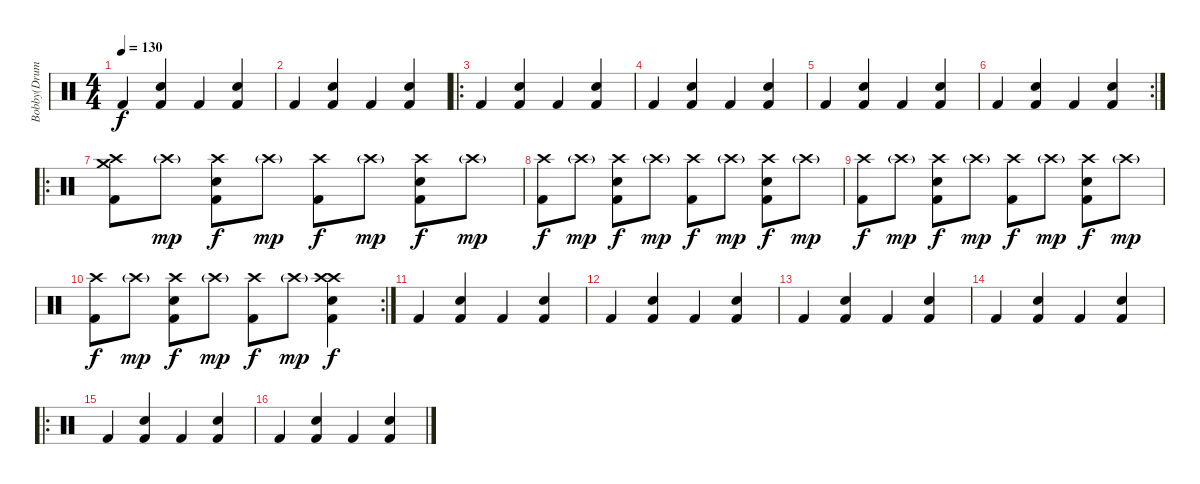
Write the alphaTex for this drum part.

\track ("Bobby(DrumSynth)" "Bobby(Drum") {instrument percussion}
\staff {score}
\articulation defaults
\ts (4 4)
\tempo 130
\clef neutral
\ks c "Kick (hit) 2".4{dy f}
("Kick (hit) 2" "Electric Snare (hit)").4 "Kick (hit) 2".4 ("Kick (hit) 2" "Electric Snare (hit)").4 |
"Kick (hit) 2".4 ("Kick (hit) 2" "Electric Snare (hit)").4 "Kick (hit) 2".4 ("Kick (hit) 2" "Electric Snare (hit)").4 |
\ro "Kick (hit) 2".4
("Kick (hit) 2" "Electric Snare (hit)").4 "Kick (hit) 2".4 ("Kick (hit) 2" "Electric Snare (hit)").4 |
"Kick (hit) 2".4 ("Kick (hit) 2" "Electric Snare (hit)").4 "Kick (hit) 2".4 ("Kick (hit) 2" "Electric Snare (hit)").4 |
"Kick (hit) 2".4 ("Kick (hit) 2" "Electric Snare (hit)").4 "Kick (hit) 2".4 ("Kick (hit) 2" "Electric Snare (hit)").4 |
\rc 2 "Kick (hit) 2".4
("Kick (hit) 2" "Electric Snare (hit)").4 "Kick (hit) 2".4 ("Kick (hit) 2" "Electric Snare (hit)").4 |
\ro
("Kick (hit) 2" "Crash high (hit)" "Crash medium (hit)").8 "Crash high (hit)"{g}.8{dy mp} ("Kick (hit) 2" "Electric Snare (hit)" "Crash high (hit)").8{dy f} "Crash high (hit)"{g}.8{dy mp} ("Kick (hit) 2" "Crash high (hit)").8{dy f} "Crash high (hit)"{g}.8{dy mp} ("Kick (hit) 2" "Electric Snare (hit)" "Crash high (hit)").8{dy f} "Crash high (hit)"{g}.8{dy mp} |
("Kick (hit) 2" "Crash high (hit)").8{dy f} "Crash high (hit)"{g}.8{dy mp} ("Kick (hit) 2" "Electric Snare (hit)" "Crash high (hit)").8{dy f} "Crash high (hit)"{g}.8{dy mp} ("Kick (hit) 2" "Crash high (hit)").8{dy f} "Crash high (hit)"{g}.8{dy mp} ("Kick (hit) 2" "Electric Snare (hit)" "Crash high (hit)").8{dy f} "Crash high (hit)"{g}.8{dy mp} |
("Kick (hit) 2" "Crash high (hit)").8{dy f} "Crash high (hit)"{g}.8{dy mp} ("Kick (hit) 2" "Electric Snare (hit)" "Crash high (hit)").8{dy f} "Crash high (hit)"{g}.8{dy mp} ("Kick (hit) 2" "Crash high (hit)").8{dy f} "Crash high (hit)"{g}.8{dy mp} ("Kick (hit) 2" "Electric Snare (hit)" "Crash high (hit)").8{dy f} "Crash high (hit)"{g}.8{dy mp} |
\rc 2
("Kick (hit) 2" "Crash high (hit)").8{dy f} "Crash high (hit)"{g}.8{dy mp} ("Kick (hit) 2" "Electric Snare (hit)" "Crash high (hit)").8{dy f} "Crash high (hit)"{g}.8{dy mp} ("Kick (hit) 2" "Crash high (hit)").8{dy f} "Crash high (hit)"{g}.8{dy mp} ("Kick (hit) 2" "Electric Snare (hit)" "Crash high (hit)" "Crash high (hit)").4{dy f} |
"Kick (hit) 2".4 ("Kick (hit) 2" "Electric Snare (hit)").4 "Kick (hit) 2".4 ("Kick (hit) 2" "Electric Snare (hit)").4 |
"Kick (hit) 2".4 ("Kick (hit) 2" "Electric Snare (hit)").4 "Kick (hit) 2".4 ("Kick (hit) 2" "Electric Snare (hit)").4 |
"Kick (hit) 2".4 ("Kick (hit) 2" "Electric Snare (hit)").4 "Kick (hit) 2".4 ("Kick (hit) 2" "Electric Snare (hit)").4 |
"Kick (hit) 2".4 ("Kick (hit) 2" "Electric Snare (hit)").4 "Kick (hit) 2".4 ("Kick (hit) 2" "Electric Snare (hit)").4 |
\ro "Kick (hit) 2".4
("Kick (hit) 2" "Electric Snare (hit)").4 "Kick (hit) 2".4 ("Kick (hit) 2" "Electric Snare (hit)").4 |
"Kick (hit) 2".4 ("Kick (hit) 2" "Electric Snare (hit)").4 "Kick (hit) 2".4 ("Kick (hit) 2" "Electric Snare (hit)").4
